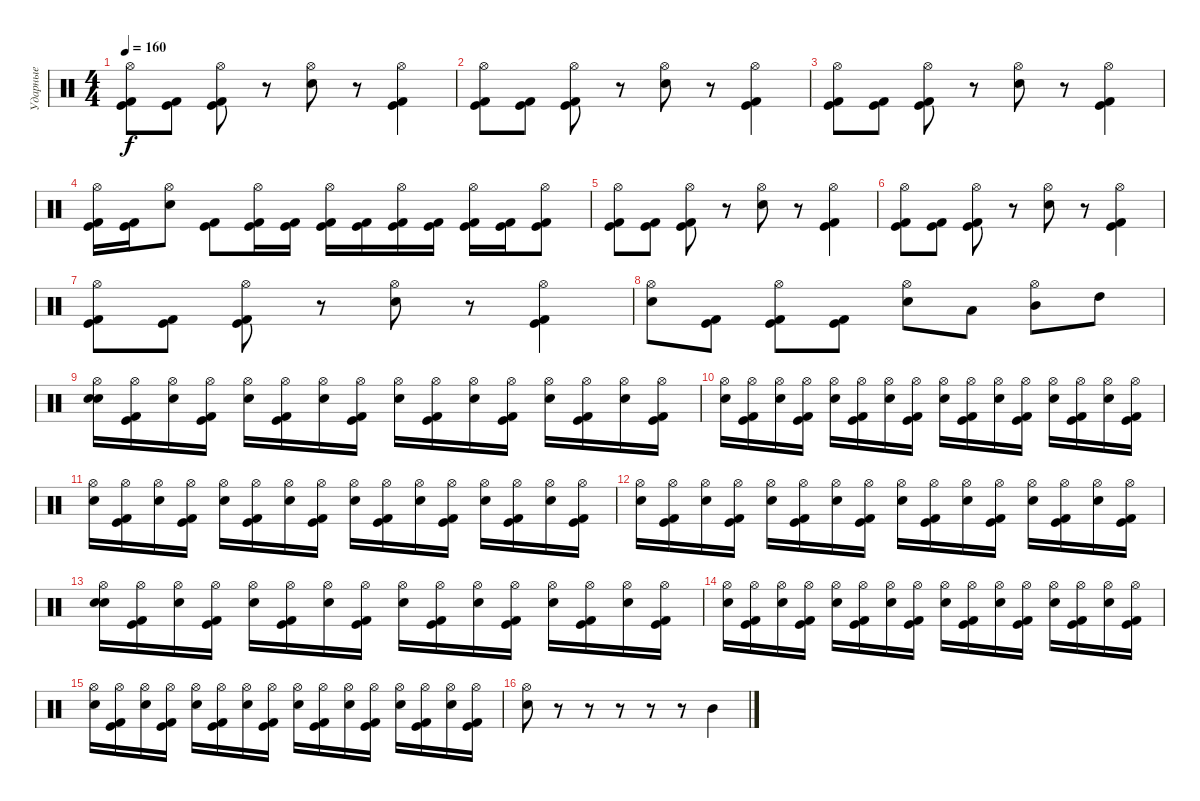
\track ("Ударные" "Ударные") {instrument percussion}
\staff {score}
\articulation defaults
\ts (4 4)
\tempo 160
\clef neutral
\ks c
("Hi-Hat (open)" "Kick (hit) 2" "Kick (hit)").8{dy f} ("Kick (hit) 2" "Kick (hit)").8 ("Hi-Hat (open)" "Kick (hit) 2" "Kick (hit)").8 r.8 ("Hi-Hat (open)" "Electric Snare (hit)").8 r.8 ("Hi-Hat (open)" "Kick (hit) 2" "Kick (hit)").4 |
("Hi-Hat (open)" "Kick (hit) 2" "Kick (hit)").8 ("Kick (hit) 2" "Kick (hit)").8 ("Hi-Hat (open)" "Kick (hit) 2" "Kick (hit)").8 r.8 ("Hi-Hat (open)" "Electric Snare (hit)").8 r.8 ("Hi-Hat (open)" "Kick (hit) 2" "Kick (hit)").4 |
("Hi-Hat (open)" "Kick (hit) 2" "Kick (hit)").8 ("Kick (hit) 2" "Kick (hit)").8 ("Hi-Hat (open)" "Kick (hit) 2" "Kick (hit)").8 r.8 ("Hi-Hat (open)" "Electric Snare (hit)").8 r.8 ("Hi-Hat (open)" "Kick (hit) 2" "Kick (hit)").4 |
("Hi-Hat (open)" "Kick (hit) 2" "Kick (hit)").16 ("Kick (hit) 2" "Kick (hit)").16 ("Hi-Hat (open)" "Electric Snare (hit)").8 ("Kick (hit) 2" "Kick (hit)").8 ("Hi-Hat (open)" "Kick (hit) 2" "Kick (hit)").16 ("Kick (hit) 2" "Kick (hit)").16 ("Hi-Hat (open)" "Kick (hit) 2" "Kick (hit)").16 ("Kick (hit) 2" "Kick (hit)").16 ("Hi-Hat (open)" "Kick (hit) 2" "Kick (hit)").16 ("Kick (hit) 2" "Kick (hit)").16 ("Hi-Hat (open)" "Kick (hit) 2" "Kick (hit)").16 ("Kick (hit) 2" "Kick (hit)").16 ("Hi-Hat (open)" "Kick (hit) 2" "Kick (hit)").8 |
("Hi-Hat (open)" "Kick (hit) 2" "Kick (hit)").8 ("Kick (hit) 2" "Kick (hit)").8 ("Hi-Hat (open)" "Kick (hit) 2" "Kick (hit)").8 r.8 ("Hi-Hat (open)" "Electric Snare (hit)").8 r.8 ("Hi-Hat (open)" "Kick (hit) 2" "Kick (hit)").4 |
("Hi-Hat (open)" "Kick (hit) 2" "Kick (hit)").8 ("Kick (hit) 2" "Kick (hit)").8 ("Hi-Hat (open)" "Kick (hit) 2" "Kick (hit)").8 r.8 ("Hi-Hat (open)" "Electric Snare (hit)").8 r.8 ("Hi-Hat (open)" "Kick (hit) 2" "Kick (hit)").4 |
("Hi-Hat (open)" "Kick (hit) 2" "Kick (hit)").8 ("Kick (hit) 2" "Kick (hit)").8 ("Hi-Hat (open)" "Kick (hit) 2" "Kick (hit)").8 r.8 ("Hi-Hat (open)" "Electric Snare (hit)").8 r.8 ("Hi-Hat (open)" "Kick (hit) 2" "Kick (hit)").4 |
("Hi-Hat (open)" "Electric Snare (hit)").8 ("Kick (hit) 2" "Kick (hit)").8 ("Hi-Hat (open)" "Kick (hit) 2" "Kick (hit)").8 ("Kick (hit) 2" "Kick (hit)").8 ("Hi-Hat (open)" "Electric Snare (hit)").8 "Low Tom (hit)".8 ("Hi-Hat (open)" "Mid Tom (hit)").8 "High Tom (hit)".8 |
("Hi-Hat (open)" "Electric Snare (hit)" "Electric Snare (hit)").16 ("Hi-Hat (open)" "Kick (hit) 2" "Kick (hit)").16 ("Hi-Hat (open)" "Electric Snare (hit)").16 ("Hi-Hat (open)" "Kick (hit) 2" "Kick (hit)").16 ("Hi-Hat (open)" "Electric Snare (hit)").16 ("Hi-Hat (open)" "Kick (hit) 2" "Kick (hit)").16 ("Hi-Hat (open)" "Electric Snare (hit)").16 ("Hi-Hat (open)" "Kick (hit) 2" "Kick (hit)").16 ("Hi-Hat (open)" "Electric Snare (hit)").16 ("Hi-Hat (open)" "Kick (hit) 2" "Kick (hit)").16 ("Hi-Hat (open)" "Electric Snare (hit)").16 ("Hi-Hat (open)" "Kick (hit) 2" "Kick (hit)").16 ("Hi-Hat (open)" "Electric Snare (hit)").16 ("Hi-Hat (open)" "Kick (hit) 2" "Kick (hit)").16 ("Hi-Hat (open)" "Electric Snare (hit)").16 ("Hi-Hat (open)" "Kick (hit) 2" "Kick (hit)").16 |
("Hi-Hat (open)" "Electric Snare (hit)").16 ("Hi-Hat (open)" "Kick (hit) 2" "Kick (hit)").16 ("Hi-Hat (open)" "Electric Snare (hit)").16 ("Hi-Hat (open)" "Kick (hit) 2" "Kick (hit)").16 ("Hi-Hat (open)" "Electric Snare (hit)").16 ("Hi-Hat (open)" "Kick (hit) 2" "Kick (hit)").16 ("Hi-Hat (open)" "Electric Snare (hit)").16 ("Hi-Hat (open)" "Kick (hit) 2" "Kick (hit)").16 ("Hi-Hat (open)" "Electric Snare (hit)").16 ("Hi-Hat (open)" "Kick (hit) 2" "Kick (hit)").16 ("Hi-Hat (open)" "Electric Snare (hit)").16 ("Hi-Hat (open)" "Kick (hit) 2" "Kick (hit)").16 ("Hi-Hat (open)" "Electric Snare (hit)").16 ("Hi-Hat (open)" "Kick (hit) 2" "Kick (hit)").16 ("Hi-Hat (open)" "Electric Snare (hit)").16 ("Hi-Hat (open)" "Kick (hit) 2" "Kick (hit)").16 |
("Hi-Hat (open)" "Electric Snare (hit)").16 ("Hi-Hat (open)" "Kick (hit) 2" "Kick (hit)").16 ("Hi-Hat (open)" "Electric Snare (hit)").16 ("Hi-Hat (open)" "Kick (hit) 2" "Kick (hit)").16 ("Hi-Hat (open)" "Electric Snare (hit)").16 ("Hi-Hat (open)" "Kick (hit) 2" "Kick (hit)").16 ("Hi-Hat (open)" "Electric Snare (hit)").16 ("Hi-Hat (open)" "Kick (hit) 2" "Kick (hit)").16 ("Hi-Hat (open)" "Electric Snare (hit)").16 ("Hi-Hat (open)" "Kick (hit) 2" "Kick (hit)").16 ("Hi-Hat (open)" "Electric Snare (hit)").16 ("Hi-Hat (open)" "Kick (hit) 2" "Kick (hit)").16 ("Hi-Hat (open)" "Electric Snare (hit)").16 ("Hi-Hat (open)" "Kick (hit) 2" "Kick (hit)").16 ("Hi-Hat (open)" "Electric Snare (hit)").16 ("Hi-Hat (open)" "Kick (hit) 2" "Kick (hit)").16 |
("Hi-Hat (open)" "Electric Snare (hit)").16 ("Hi-Hat (open)" "Kick (hit) 2" "Kick (hit)").16 ("Hi-Hat (open)" "Electric Snare (hit)").16 ("Hi-Hat (open)" "Kick (hit) 2" "Kick (hit)").16 ("Hi-Hat (open)" "Electric Snare (hit)").16 ("Hi-Hat (open)" "Kick (hit) 2" "Kick (hit)").16 ("Hi-Hat (open)" "Electric Snare (hit)").16 ("Hi-Hat (open)" "Kick (hit) 2" "Kick (hit)").16 ("Hi-Hat (open)" "Electric Snare (hit)").16 ("Hi-Hat (open)" "Kick (hit) 2" "Kick (hit)").16 ("Hi-Hat (open)" "Electric Snare (hit)").16 ("Hi-Hat (open)" "Kick (hit) 2" "Kick (hit)").16 ("Hi-Hat (open)" "Electric Snare (hit)").16 ("Hi-Hat (open)" "Kick (hit) 2" "Kick (hit)").16 ("Hi-Hat (open)" "Electric Snare (hit)").16 ("Hi-Hat (open)" "Kick (hit) 2" "Kick (hit)").16 |
("Hi-Hat (open)" "Electric Snare (hit)" "Electric Snare (hit)").16 ("Hi-Hat (open)" "Kick (hit) 2" "Kick (hit)").16 ("Hi-Hat (open)" "Electric Snare (hit)").16 ("Hi-Hat (open)" "Kick (hit) 2" "Kick (hit)").16 ("Hi-Hat (open)" "Electric Snare (hit)").16 ("Hi-Hat (open)" "Kick (hit) 2" "Kick (hit)").16 ("Hi-Hat (open)" "Electric Snare (hit)").16 ("Hi-Hat (open)" "Kick (hit) 2" "Kick (hit)").16 ("Hi-Hat (open)" "Electric Snare (hit)").16 ("Hi-Hat (open)" "Kick (hit) 2" "Kick (hit)").16 ("Hi-Hat (open)" "Electric Snare (hit)").16 ("Hi-Hat (open)" "Kick (hit) 2" "Kick (hit)").16 ("Hi-Hat (open)" "Electric Snare (hit)").16 ("Hi-Hat (open)" "Kick (hit) 2" "Kick (hit)").16 ("Hi-Hat (open)" "Electric Snare (hit)").16 ("Hi-Hat (open)" "Kick (hit) 2" "Kick (hit)").16 |
("Hi-Hat (open)" "Electric Snare (hit)").16 ("Hi-Hat (open)" "Kick (hit) 2" "Kick (hit)").16 ("Hi-Hat (open)" "Electric Snare (hit)").16 ("Hi-Hat (open)" "Kick (hit) 2" "Kick (hit)").16 ("Hi-Hat (open)" "Electric Snare (hit)").16 ("Hi-Hat (open)" "Kick (hit) 2" "Kick (hit)").16 ("Hi-Hat (open)" "Electric Snare (hit)").16 ("Hi-Hat (open)" "Kick (hit) 2" "Kick (hit)").16 ("Hi-Hat (open)" "Electric Snare (hit)").16 ("Hi-Hat (open)" "Kick (hit) 2" "Kick (hit)").16 ("Hi-Hat (open)" "Electric Snare (hit)").16 ("Hi-Hat (open)" "Kick (hit) 2" "Kick (hit)").16 ("Hi-Hat (open)" "Electric Snare (hit)").16 ("Hi-Hat (open)" "Kick (hit) 2" "Kick (hit)").16 ("Hi-Hat (open)" "Electric Snare (hit)").16 ("Hi-Hat (open)" "Kick (hit) 2" "Kick (hit)").16 |
("Hi-Hat (open)" "Electric Snare (hit)").16 ("Hi-Hat (open)" "Kick (hit) 2" "Kick (hit)").16 ("Hi-Hat (open)" "Electric Snare (hit)").16 ("Hi-Hat (open)" "Kick (hit) 2" "Kick (hit)").16 ("Hi-Hat (open)" "Electric Snare (hit)").16 ("Hi-Hat (open)" "Kick (hit) 2" "Kick (hit)").16 ("Hi-Hat (open)" "Electric Snare (hit)").16 ("Hi-Hat (open)" "Kick (hit) 2" "Kick (hit)").16 ("Hi-Hat (open)" "Electric Snare (hit)").16 ("Hi-Hat (open)" "Kick (hit) 2" "Kick (hit)").16 ("Hi-Hat (open)" "Electric Snare (hit)").16 ("Hi-Hat (open)" "Kick (hit) 2" "Kick (hit)").16 ("Hi-Hat (open)" "Electric Snare (hit)").16 ("Hi-Hat (open)" "Kick (hit) 2" "Kick (hit)").16 ("Hi-Hat (open)" "Electric Snare (hit)").16 ("Hi-Hat (open)" "Kick (hit) 2" "Kick (hit)").16 |
("Hi-Hat (open)" "Electric Snare (hit)").8 r.8 r.8 r.8 r.8 r.8 "Mid Tom (hit)".4
